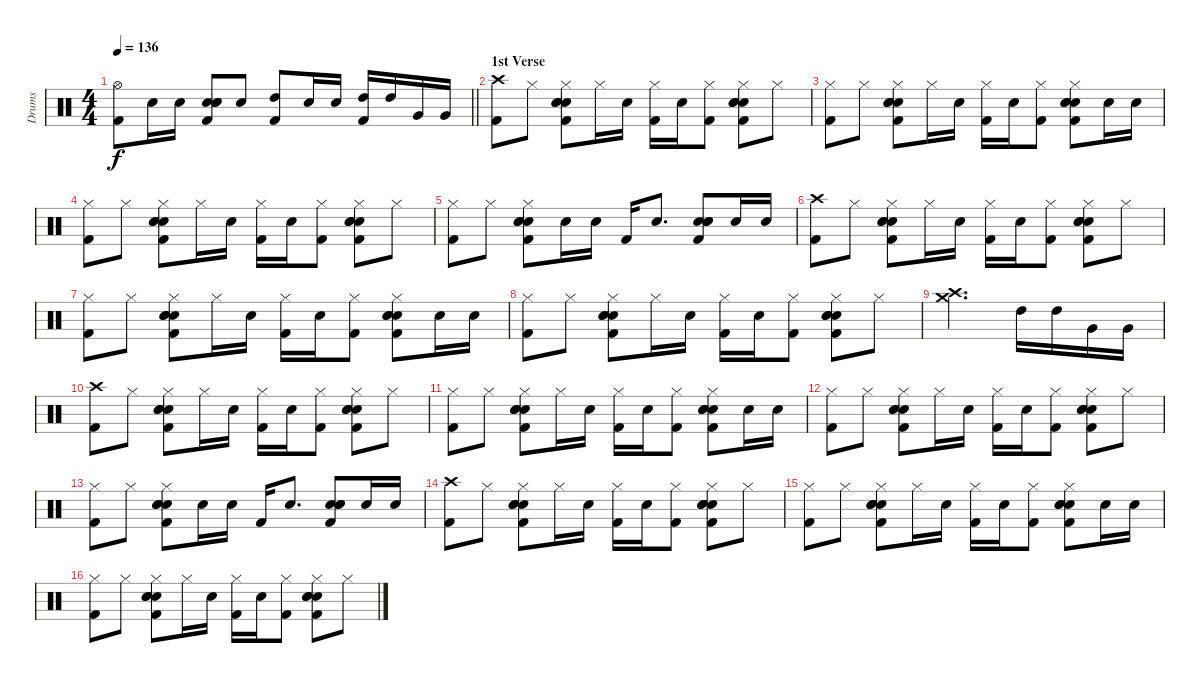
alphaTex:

\track ("Drums" "Drums") {instrument percussion}
\staff {score}
\articulation defaults
\ts (4 4)
\tempo 136
\clef neutral
\barLineRight lightlight
\ks c
("Hi-Hat (open)" "Kick (hit) 2").8{dy f} "Electric Snare (hit)".16 "Electric Snare (hit)".16 ("Electric Snare (hit)" "Electric Snare (hit)" "Electric Snare (hit)" "Kick (hit) 2").8 "Electric Snare (hit)".8 ("High Tom (hit)" "Kick (hit) 2").8 "Electric Snare (hit)".16 "Electric Snare (hit)".16 ("High Tom (hit)" "Kick (hit) 2").16 "High Tom (hit)".16 "Very Low Tom (hit)".16 "Very Low Tom (hit)".16 |
\section ("" "1st Verse")
("Crash high (hit)" "Kick (hit) 2").8 "Hi-Hat (closed)".8 ("Hi-Hat (closed)" "Electric Snare (hit)" "Electric Snare (hit)" "Electric Snare (hit)" "Kick (hit) 2").8 "Hi-Hat (closed)".16 "Electric Snare (hit)".16 ("Hi-Hat (closed)" "Kick (hit) 2").16 "Electric Snare (hit)".16 ("Hi-Hat (closed)" "Kick (hit) 2").8 ("Hi-Hat (closed)" "Electric Snare (hit)" "Electric Snare (hit)" "Electric Snare (hit)" "Kick (hit) 2").8 "Hi-Hat (closed)".8 |
("Hi-Hat (closed)" "Kick (hit) 2").8 "Hi-Hat (closed)".8 ("Hi-Hat (closed)" "Electric Snare (hit)" "Electric Snare (hit)" "Electric Snare (hit)" "Kick (hit) 2").8 "Hi-Hat (closed)".16 "Electric Snare (hit)".16 ("Hi-Hat (closed)" "Kick (hit) 2").16 "Electric Snare (hit)".16 ("Hi-Hat (closed)" "Kick (hit) 2").8 ("Hi-Hat (closed)" "Electric Snare (hit)" "Electric Snare (hit)" "Electric Snare (hit)" "Kick (hit) 2").8 "Electric Snare (hit)".16 "Electric Snare (hit)".16 |
("Hi-Hat (closed)" "Kick (hit) 2").8 "Hi-Hat (closed)".8 ("Hi-Hat (closed)" "Electric Snare (hit)" "Electric Snare (hit)" "Electric Snare (hit)" "Kick (hit) 2").8 "Hi-Hat (closed)".16 "Electric Snare (hit)".16 ("Hi-Hat (closed)" "Kick (hit) 2").16 "Electric Snare (hit)".16 ("Hi-Hat (closed)" "Kick (hit) 2").8 ("Hi-Hat (closed)" "Electric Snare (hit)" "Electric Snare (hit)" "Electric Snare (hit)" "Kick (hit) 2").8 "Hi-Hat (closed)".8 |
("Hi-Hat (closed)" "Kick (hit) 2").8 "Hi-Hat (closed)".8 ("Hi-Hat (closed)" "Electric Snare (hit)" "Electric Snare (hit)" "Electric Snare (hit)" "Kick (hit) 2").8 "Electric Snare (hit)".16 "Electric Snare (hit)".16 "Kick (hit) 2".16 "Electric Snare (hit)".8{d} ("Electric Snare (hit)" "Electric Snare (hit)" "Electric Snare (hit)" "Kick (hit) 2").8 "Electric Snare (hit)".16 "Electric Snare (hit)".16 |
("Crash high (hit)" "Kick (hit) 2").8 "Hi-Hat (closed)".8 ("Hi-Hat (closed)" "Electric Snare (hit)" "Electric Snare (hit)" "Electric Snare (hit)" "Kick (hit) 2").8 "Hi-Hat (closed)".16 "Electric Snare (hit)".16 ("Hi-Hat (closed)" "Kick (hit) 2").16 "Electric Snare (hit)".16 ("Hi-Hat (closed)" "Kick (hit) 2").8 ("Hi-Hat (closed)" "Electric Snare (hit)" "Electric Snare (hit)" "Electric Snare (hit)" "Kick (hit) 2").8 "Hi-Hat (closed)".8 |
("Hi-Hat (closed)" "Kick (hit) 2").8 "Hi-Hat (closed)".8 ("Hi-Hat (closed)" "Electric Snare (hit)" "Electric Snare (hit)" "Electric Snare (hit)" "Kick (hit) 2").8 "Hi-Hat (closed)".16 "Electric Snare (hit)".16 ("Hi-Hat (closed)" "Kick (hit) 2").16 "Electric Snare (hit)".16 ("Hi-Hat (closed)" "Kick (hit) 2").8 ("Hi-Hat (closed)" "Electric Snare (hit)" "Electric Snare (hit)" "Electric Snare (hit)" "Kick (hit) 2").8 "Electric Snare (hit)".16 "Electric Snare (hit)".16 |
("Hi-Hat (closed)" "Kick (hit) 2").8 "Hi-Hat (closed)".8 ("Hi-Hat (closed)" "Electric Snare (hit)" "Electric Snare (hit)" "Electric Snare (hit)" "Kick (hit) 2").8 "Hi-Hat (closed)".16 "Electric Snare (hit)".16 ("Hi-Hat (closed)" "Kick (hit) 2").16 "Electric Snare (hit)".16 ("Hi-Hat (closed)" "Kick (hit) 2").8 ("Hi-Hat (closed)" "Electric Snare (hit)" "Electric Snare (hit)" "Electric Snare (hit)" "Kick (hit) 2").8 "Hi-Hat (closed)".8 |
("Crash high (hit)" "Crash medium (hit)").2{d} "High Tom (hit)".16 "High Tom (hit)".16 "Very Low Tom (hit)".16 "Very Low Tom (hit)".16 |
("Crash high (hit)" "Kick (hit) 2").8 "Hi-Hat (closed)".8 ("Hi-Hat (closed)" "Electric Snare (hit)" "Electric Snare (hit)" "Electric Snare (hit)" "Kick (hit) 2").8 "Hi-Hat (closed)".16 "Electric Snare (hit)".16 ("Hi-Hat (closed)" "Kick (hit) 2").16 "Electric Snare (hit)".16 ("Hi-Hat (closed)" "Kick (hit) 2").8 ("Hi-Hat (closed)" "Electric Snare (hit)" "Electric Snare (hit)" "Electric Snare (hit)" "Kick (hit) 2").8 "Hi-Hat (closed)".8 |
("Hi-Hat (closed)" "Kick (hit) 2").8 "Hi-Hat (closed)".8 ("Hi-Hat (closed)" "Electric Snare (hit)" "Electric Snare (hit)" "Electric Snare (hit)" "Kick (hit) 2").8 "Hi-Hat (closed)".16 "Electric Snare (hit)".16 ("Hi-Hat (closed)" "Kick (hit) 2").16 "Electric Snare (hit)".16 ("Hi-Hat (closed)" "Kick (hit) 2").8 ("Hi-Hat (closed)" "Electric Snare (hit)" "Electric Snare (hit)" "Electric Snare (hit)" "Kick (hit) 2").8 "Electric Snare (hit)".16 "Electric Snare (hit)".16 |
("Hi-Hat (closed)" "Kick (hit) 2").8 "Hi-Hat (closed)".8 ("Hi-Hat (closed)" "Electric Snare (hit)" "Electric Snare (hit)" "Electric Snare (hit)" "Kick (hit) 2").8 "Hi-Hat (closed)".16 "Electric Snare (hit)".16 ("Hi-Hat (closed)" "Kick (hit) 2").16 "Electric Snare (hit)".16 ("Hi-Hat (closed)" "Kick (hit) 2").8 ("Hi-Hat (closed)" "Electric Snare (hit)" "Electric Snare (hit)" "Electric Snare (hit)" "Kick (hit) 2").8 "Hi-Hat (closed)".8 |
("Hi-Hat (closed)" "Kick (hit) 2").8 "Hi-Hat (closed)".8 ("Hi-Hat (closed)" "Electric Snare (hit)" "Electric Snare (hit)" "Electric Snare (hit)" "Kick (hit) 2").8 "Electric Snare (hit)".16 "Electric Snare (hit)".16 "Kick (hit) 2".16 "Electric Snare (hit)".8{d} ("Electric Snare (hit)" "Electric Snare (hit)" "Electric Snare (hit)" "Kick (hit) 2").8 "Electric Snare (hit)".16 "Electric Snare (hit)".16 |
("Crash high (hit)" "Kick (hit) 2").8 "Hi-Hat (closed)".8 ("Hi-Hat (closed)" "Electric Snare (hit)" "Electric Snare (hit)" "Electric Snare (hit)" "Kick (hit) 2").8 "Hi-Hat (closed)".16 "Electric Snare (hit)".16 ("Hi-Hat (closed)" "Kick (hit) 2").16 "Electric Snare (hit)".16 ("Hi-Hat (closed)" "Kick (hit) 2").8 ("Hi-Hat (closed)" "Electric Snare (hit)" "Electric Snare (hit)" "Electric Snare (hit)" "Kick (hit) 2").8 "Hi-Hat (closed)".8 |
("Hi-Hat (closed)" "Kick (hit) 2").8 "Hi-Hat (closed)".8 ("Hi-Hat (closed)" "Electric Snare (hit)" "Electric Snare (hit)" "Electric Snare (hit)" "Kick (hit) 2").8 "Hi-Hat (closed)".16 "Electric Snare (hit)".16 ("Hi-Hat (closed)" "Kick (hit) 2").16 "Electric Snare (hit)".16 ("Hi-Hat (closed)" "Kick (hit) 2").8 ("Hi-Hat (closed)" "Electric Snare (hit)" "Electric Snare (hit)" "Electric Snare (hit)" "Kick (hit) 2").8 "Electric Snare (hit)".16 "Electric Snare (hit)".16 |
("Hi-Hat (closed)" "Kick (hit) 2").8 "Hi-Hat (closed)".8 ("Hi-Hat (closed)" "Electric Snare (hit)" "Electric Snare (hit)" "Electric Snare (hit)" "Kick (hit) 2").8 "Hi-Hat (closed)".16 "Electric Snare (hit)".16 ("Hi-Hat (closed)" "Kick (hit) 2").16 "Electric Snare (hit)".16 ("Hi-Hat (closed)" "Kick (hit) 2").8 ("Hi-Hat (closed)" "Electric Snare (hit)" "Electric Snare (hit)" "Electric Snare (hit)" "Kick (hit) 2").8 "Hi-Hat (closed)".8
